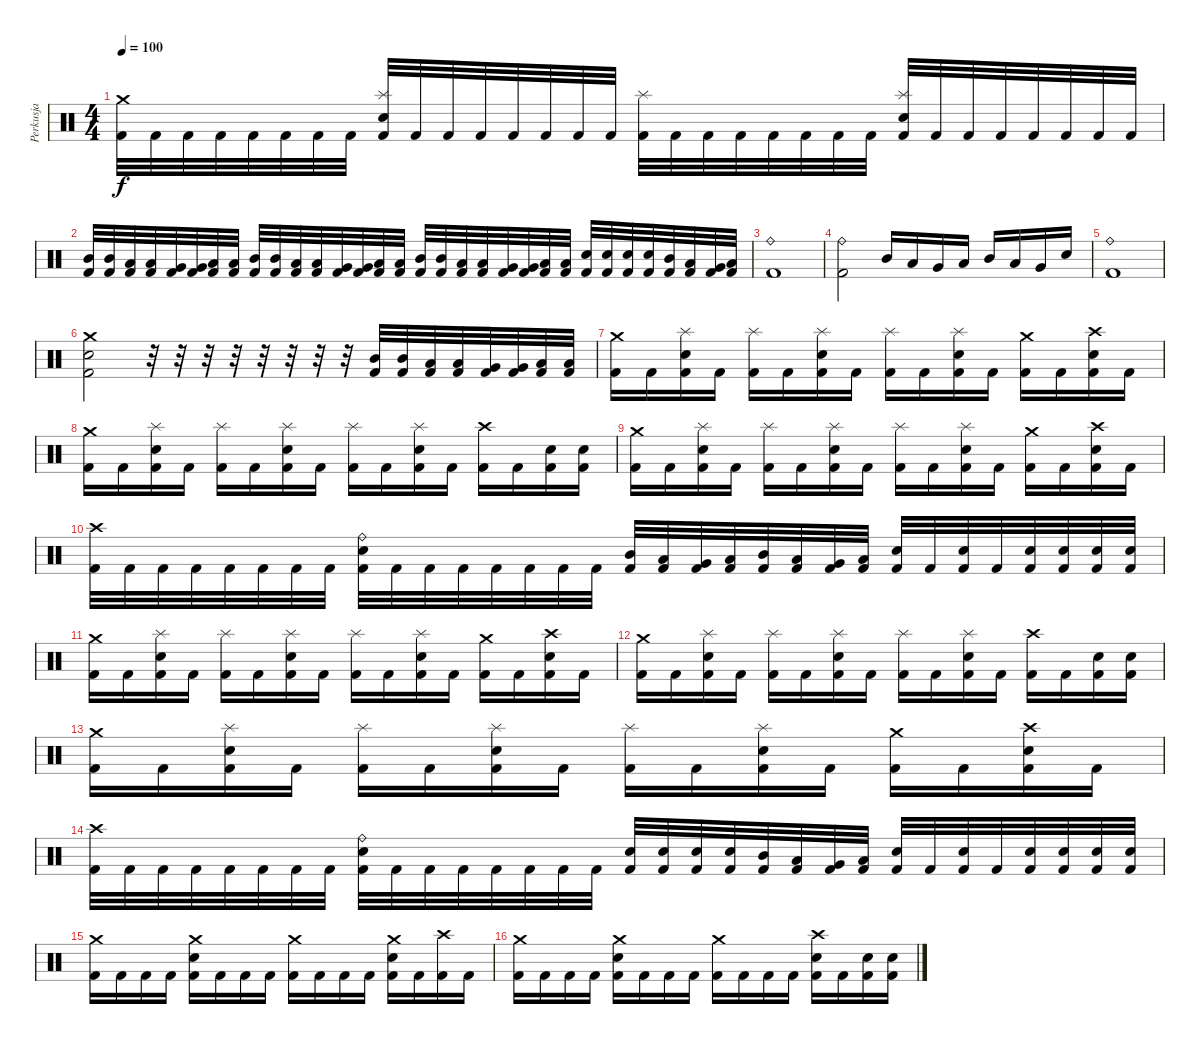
\track ("Perkusja" "Perkusja") {instrument percussion}
\staff {score}
\articulation defaults
\ts (4 4)
\tempo 100
\clef neutral
\ks c
("Crash medium (hit)" "Kick (hit) 2").32{dy f} "Kick (hit) 2".32 "Kick (hit) 2".32 "Kick (hit) 2".32 "Kick (hit) 2".32 "Kick (hit) 2".32 "Kick (hit) 2".32 "Kick (hit) 2".32 ("Splash (hit)" "Electric Snare (hit)" "Kick (hit) 2").32 "Kick (hit) 2".32 "Kick (hit) 2".32 "Kick (hit) 2".32 "Kick (hit) 2".32 "Kick (hit) 2".32 "Kick (hit) 2".32 "Kick (hit) 2".32 ("Splash (hit)" "Kick (hit) 2").32 "Kick (hit) 2".32 "Kick (hit) 2".32 "Kick (hit) 2".32 "Kick (hit) 2".32 "Kick (hit) 2".32 "Kick (hit) 2".32 "Kick (hit) 2".32 ("Splash (hit)" "Electric Snare (hit)" "Kick (hit) 2").32 "Kick (hit) 2".32 "Kick (hit) 2".32 "Kick (hit) 2".32 "Kick (hit) 2".32 "Kick (hit) 2".32 "Kick (hit) 2".32 "Kick (hit) 2".32 |
("Mid Tom (hit)" "Kick (hit) 2").32 ("Mid Tom (hit)" "Kick (hit) 2").32 ("Low Tom (hit)" "Kick (hit) 2").32 ("Low Tom (hit)" "Kick (hit) 2").32 ("Very Low Tom (hit)" "Kick (hit) 2").32 ("Very Low Tom (hit)" "Kick (hit) 2").32 ("Low Floor Tom (hit)" "Kick (hit) 2").32 ("Low Floor Tom (hit)" "Kick (hit) 2").32 ("Mid Tom (hit)" "Kick (hit) 2").32 ("Mid Tom (hit)" "Kick (hit) 2").32 ("Low Tom (hit)" "Kick (hit) 2").32 ("Low Tom (hit)" "Kick (hit) 2").32 ("Very Low Tom (hit)" "Kick (hit) 2").32 ("Very Low Tom (hit)" "Kick (hit) 2").32 ("Low Floor Tom (hit)" "Kick (hit) 2").32 ("Low Floor Tom (hit)" "Kick (hit) 2").32 ("Mid Tom (hit)" "Kick (hit) 2").32 ("Mid Tom (hit)" "Kick (hit) 2").32 ("Low Tom (hit)" "Kick (hit) 2").32 ("Low Tom (hit)" "Kick (hit) 2").32 ("Very Low Tom (hit)" "Kick (hit) 2").32 ("Very Low Tom (hit)" "Kick (hit) 2").32 ("Low Floor Tom (hit)" "Kick (hit) 2").32 ("Low Floor Tom (hit)" "Kick (hit) 2").32 ("Electric Snare (hit)" "Kick (hit) 2").32 ("Electric Snare (hit)" "Kick (hit) 2").32 ("Electric Snare (hit)" "Kick (hit) 2").32 ("Electric Snare (hit)" "Kick (hit) 2").32 ("Mid Tom (hit)" "Kick (hit) 2").32 ("Low Tom (hit)" "Kick (hit) 2").32 ("Very Low Tom (hit)" "Kick (hit) 2").32 ("Low Floor Tom (hit)" "Kick (hit) 2").32 |
("Ride (bell)" "Kick (hit) 2").1 |
("Ride (bell)" "Kick (hit) 2").2 "Mid Tom (hit)".16 "Low Tom (hit)".16 "Very Low Tom (hit)".16 "Low Floor Tom (hit)".16 "Mid Tom (hit)".16 "Low Tom (hit)".16 "Very Low Tom (hit)".16 "Electric Snare (hit)".16 |
("Ride (bell)" "Kick (hit) 2").1 |
("Snare (hit) 2" "Kick (hit) 2" "Crash medium (hit)").2 r.32 r.32 r.32 r.32 r.32 r.32 r.32 r.32 ("Mid Tom (hit)" "Kick (hit) 2").32 ("Mid Tom (hit)" "Kick (hit) 2").32 ("Low Tom (hit)" "Kick (hit) 2").32 ("Low Tom (hit)" "Kick (hit) 2").32 ("Very Low Tom (hit)" "Kick (hit) 2").32 ("Very Low Tom (hit)" "Kick (hit) 2").32 ("Low Floor Tom (hit)" "Kick (hit) 2").32 ("Low Floor Tom (hit)" "Kick (hit) 2").32 |
("Crash medium (hit)" "Kick (hit) 2").16 "Kick (hit) 2".16 ("Splash (hit)" "Electric Snare (hit)" "Kick (hit) 2").16 "Kick (hit) 2".16 ("Splash (hit)" "Kick (hit) 2").16 "Kick (hit) 2".16 ("Splash (hit)" "Electric Snare (hit)" "Kick (hit) 2").16 "Kick (hit) 2".16 ("Splash (hit)" "Kick (hit) 2").16 "Kick (hit) 2".16 ("Splash (hit)" "Electric Snare (hit)" "Kick (hit) 2").16 "Kick (hit) 2".16 ("Crash medium (hit)" "Kick (hit) 2").16 "Kick (hit) 2".16 ("Crash high (hit)" "Electric Snare (hit)" "Kick (hit) 2").16 "Kick (hit) 2".16 |
("Crash medium (hit)" "Kick (hit) 2").16 "Kick (hit) 2".16 ("Splash (hit)" "Electric Snare (hit)" "Kick (hit) 2").16 "Kick (hit) 2".16 ("Splash (hit)" "Kick (hit) 2").16 "Kick (hit) 2".16 ("Splash (hit)" "Electric Snare (hit)" "Kick (hit) 2").16 "Kick (hit) 2".16 ("Splash (hit)" "Kick (hit) 2").16 "Kick (hit) 2".16 ("Splash (hit)" "Electric Snare (hit)" "Kick (hit) 2").16 "Kick (hit) 2".16 ("Crash high (hit)" "Kick (hit) 2").16 "Kick (hit) 2".16 ("Electric Snare (hit)" "Kick (hit) 2").16 ("Electric Snare (hit)" "Kick (hit) 2").16 |
("Crash medium (hit)" "Kick (hit) 2").16 "Kick (hit) 2".16 ("Splash (hit)" "Electric Snare (hit)" "Kick (hit) 2").16 "Kick (hit) 2".16 ("Splash (hit)" "Kick (hit) 2").16 "Kick (hit) 2".16 ("Splash (hit)" "Electric Snare (hit)" "Kick (hit) 2").16 "Kick (hit) 2".16 ("Splash (hit)" "Kick (hit) 2").16 "Kick (hit) 2".16 ("Splash (hit)" "Electric Snare (hit)" "Kick (hit) 2").16 "Kick (hit) 2".16 ("Crash medium (hit)" "Kick (hit) 2").16 "Kick (hit) 2".16 ("Crash high (hit)" "Electric Snare (hit)" "Kick (hit) 2").16 "Kick (hit) 2".16 |
("Crash high (hit)" "Kick (hit) 2").32 "Kick (hit) 2".32 "Kick (hit) 2".32 "Kick (hit) 2".32 "Kick (hit) 2".32 "Kick (hit) 2".32 "Kick (hit) 2".32 "Kick (hit) 2".32 ("Ride (bell)" "Electric Snare (hit)" "Kick (hit) 2").32 "Kick (hit) 2".32 "Kick (hit) 2".32 "Kick (hit) 2".32 "Kick (hit) 2".32 "Kick (hit) 2".32 "Kick (hit) 2".32 "Kick (hit) 2".32 ("Mid Tom (hit)" "Kick (hit) 2").32 ("Low Tom (hit)" "Kick (hit) 2").32 ("Very Low Tom (hit)" "Kick (hit) 2").32 ("Low Floor Tom (hit)" "Kick (hit) 2").32 ("Mid Tom (hit)" "Kick (hit) 2").32 ("Low Tom (hit)" "Kick (hit) 2").32 ("Very Low Tom (hit)" "Kick (hit) 2").32 ("Low Floor Tom (hit)" "Kick (hit) 2").32 ("Electric Snare (hit)" "Kick (hit) 2").32 "Kick (hit) 2".32 ("Electric Snare (hit)" "Kick (hit) 2").32 "Kick (hit) 2".32 ("Electric Snare (hit)" "Kick (hit) 2").32 ("Electric Snare (hit)" "Kick (hit) 2").32 ("Electric Snare (hit)" "Kick (hit) 2").32 ("Electric Snare (hit)" "Kick (hit) 2").32 |
("Crash medium (hit)" "Kick (hit) 2").16 "Kick (hit) 2".16 ("Splash (hit)" "Electric Snare (hit)" "Kick (hit) 2").16 "Kick (hit) 2".16 ("Splash (hit)" "Kick (hit) 2").16 "Kick (hit) 2".16 ("Splash (hit)" "Electric Snare (hit)" "Kick (hit) 2").16 "Kick (hit) 2".16 ("Splash (hit)" "Kick (hit) 2").16 "Kick (hit) 2".16 ("Splash (hit)" "Electric Snare (hit)" "Kick (hit) 2").16 "Kick (hit) 2".16 ("Crash medium (hit)" "Kick (hit) 2").16 "Kick (hit) 2".16 ("Crash high (hit)" "Electric Snare (hit)" "Kick (hit) 2").16 "Kick (hit) 2".16 |
("Crash medium (hit)" "Kick (hit) 2").16 "Kick (hit) 2".16 ("Splash (hit)" "Electric Snare (hit)" "Kick (hit) 2").16 "Kick (hit) 2".16 ("Splash (hit)" "Kick (hit) 2").16 "Kick (hit) 2".16 ("Splash (hit)" "Electric Snare (hit)" "Kick (hit) 2").16 "Kick (hit) 2".16 ("Splash (hit)" "Kick (hit) 2").16 "Kick (hit) 2".16 ("Splash (hit)" "Electric Snare (hit)" "Kick (hit) 2").16 "Kick (hit) 2".16 ("Crash high (hit)" "Kick (hit) 2").16 "Kick (hit) 2".16 ("Electric Snare (hit)" "Kick (hit) 2").16 ("Electric Snare (hit)" "Kick (hit) 2").16 |
("Crash medium (hit)" "Kick (hit) 2").16 "Kick (hit) 2".16 ("Splash (hit)" "Electric Snare (hit)" "Kick (hit) 2").16 "Kick (hit) 2".16 ("Splash (hit)" "Kick (hit) 2").16 "Kick (hit) 2".16 ("Splash (hit)" "Electric Snare (hit)" "Kick (hit) 2").16 "Kick (hit) 2".16 ("Splash (hit)" "Kick (hit) 2").16 "Kick (hit) 2".16 ("Splash (hit)" "Electric Snare (hit)" "Kick (hit) 2").16 "Kick (hit) 2".16 ("Crash medium (hit)" "Kick (hit) 2").16 "Kick (hit) 2".16 ("Crash high (hit)" "Electric Snare (hit)" "Kick (hit) 2").16 "Kick (hit) 2".16 |
("Crash high (hit)" "Kick (hit) 2").32 "Kick (hit) 2".32 "Kick (hit) 2".32 "Kick (hit) 2".32 "Kick (hit) 2".32 "Kick (hit) 2".32 "Kick (hit) 2".32 "Kick (hit) 2".32 ("Ride (bell)" "Electric Snare (hit)" "Kick (hit) 2").32 "Kick (hit) 2".32 "Kick (hit) 2".32 "Kick (hit) 2".32 "Kick (hit) 2".32 "Kick (hit) 2".32 "Kick (hit) 2".32 "Kick (hit) 2".32 ("Electric Snare (hit)" "Kick (hit) 2").32 ("Electric Snare (hit)" "Kick (hit) 2").32 ("Electric Snare (hit)" "Kick (hit) 2").32 ("Electric Snare (hit)" "Kick (hit) 2").32 ("Mid Tom (hit)" "Kick (hit) 2").32 ("Low Tom (hit)" "Kick (hit) 2").32 ("Very Low Tom (hit)" "Kick (hit) 2").32 ("Low Floor Tom (hit)" "Kick (hit) 2").32 ("Electric Snare (hit)" "Kick (hit) 2").32 "Kick (hit) 2".32 ("Electric Snare (hit)" "Kick (hit) 2").32 "Kick (hit) 2".32 ("Electric Snare (hit)" "Kick (hit) 2").32 ("Electric Snare (hit)" "Kick (hit) 2").32 ("Electric Snare (hit)" "Kick (hit) 2").32 ("Electric Snare (hit)" "Kick (hit) 2").32 |
("Crash medium (hit)" "Kick (hit) 2").16 "Kick (hit) 2".16 "Kick (hit) 2".16 "Kick (hit) 2".16 ("Crash medium (hit)" "Electric Snare (hit)" "Kick (hit) 2").16 "Kick (hit) 2".16 "Kick (hit) 2".16 "Kick (hit) 2".16 ("Crash medium (hit)" "Kick (hit) 2").16 "Kick (hit) 2".16 "Kick (hit) 2".16 "Kick (hit) 2".16 ("Crash medium (hit)" "Electric Snare (hit)" "Kick (hit) 2").16 "Kick (hit) 2".16 ("Crash high (hit)" "Kick (hit) 2").16 "Kick (hit) 2".16 |
("Crash medium (hit)" "Kick (hit) 2").16 "Kick (hit) 2".16 "Kick (hit) 2".16 "Kick (hit) 2".16 ("Crash medium (hit)" "Electric Snare (hit)" "Kick (hit) 2").16 "Kick (hit) 2".16 "Kick (hit) 2".16 "Kick (hit) 2".16 ("Crash medium (hit)" "Kick (hit) 2").16 "Kick (hit) 2".16 "Kick (hit) 2".16 "Kick (hit) 2".16 ("Crash high (hit)" "Electric Snare (hit)" "Kick (hit) 2").16 "Kick (hit) 2".16 ("Electric Snare (hit)" "Kick (hit) 2").16 ("Electric Snare (hit)" "Kick (hit) 2").16
